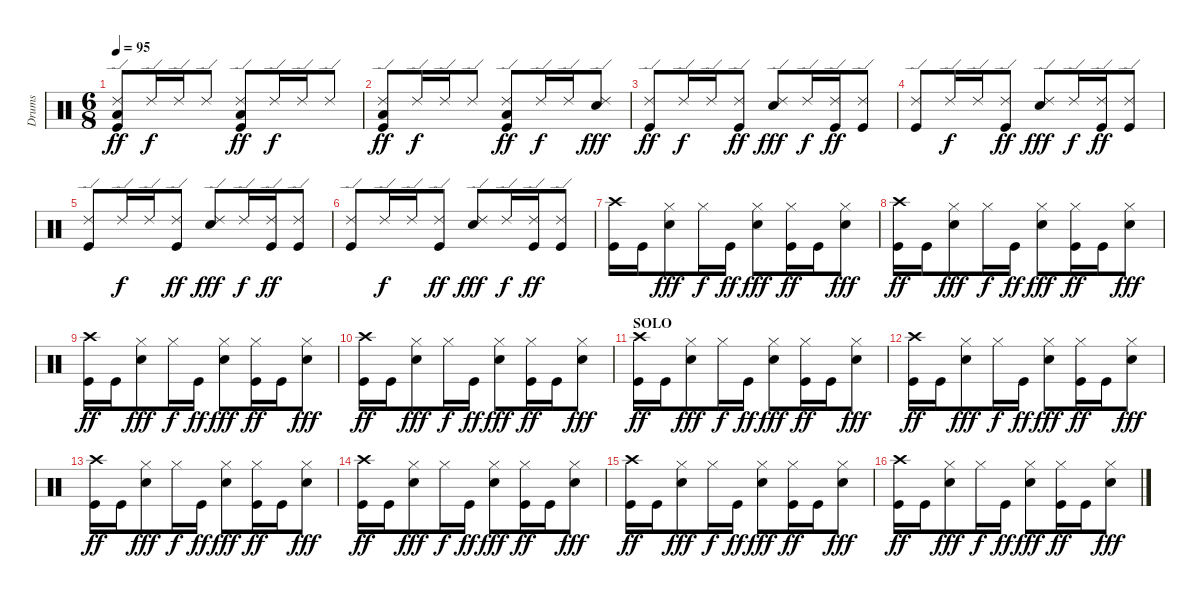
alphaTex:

\track ("Drums" "Drums") {instrument percussion}
\staff {score}
\articulation defaults
\ts (6 8)
\tempo 95
\clef neutral
\ks c
("Ride (edge) 2" "Low Tom (hit)" "Kick (hit)").8{dy ff} "Ride (edge) 2".16{dy f} "Ride (edge) 2".16 "Ride (edge) 2".8 ("Ride (edge) 2" "Low Tom (hit)" "Kick (hit)").8{dy ff} "Ride (edge) 2".16{dy f} "Ride (edge) 2".16 "Ride (edge) 2".8 |
("Ride (edge) 2" "Low Tom (hit)" "Kick (hit)").8{dy ff} "Ride (edge) 2".16{dy f} "Ride (edge) 2".16 "Ride (edge) 2".8 ("Ride (edge) 2" "Low Tom (hit)" "Kick (hit)").8{dy ff} "Ride (edge) 2".16{dy f} "Ride (edge) 2".16 ("Ride (edge) 2" "Electric Snare (hit)").8{dy fff} |
("Ride (edge) 2" "Kick (hit)").8{dy ff} "Ride (edge) 2".16{dy f} "Ride (edge) 2".16 ("Ride (edge) 2" "Kick (hit)").8{dy ff} ("Ride (edge) 2" "Electric Snare (hit)").8{dy fff} "Ride (edge) 2".16{dy f} ("Ride (edge) 2" "Kick (hit)").16{dy ff} ("Ride (edge) 2" "Kick (hit)").8 |
("Ride (edge) 2" "Kick (hit)").8 "Ride (edge) 2".16{dy f} "Ride (edge) 2".16 ("Ride (edge) 2" "Kick (hit)").8{dy ff} ("Ride (edge) 2" "Electric Snare (hit)").8{dy fff} "Ride (edge) 2".16{dy f} ("Ride (edge) 2" "Kick (hit)").16{dy ff} ("Ride (edge) 2" "Kick (hit)").8 |
("Ride (edge) 2" "Kick (hit)").8 "Ride (edge) 2".16{dy f} "Ride (edge) 2".16 ("Ride (edge) 2" "Kick (hit)").8{dy ff} ("Ride (edge) 2" "Electric Snare (hit)").8{dy fff} "Ride (edge) 2".16{dy f} ("Ride (edge) 2" "Kick (hit)").16{dy ff} ("Ride (edge) 2" "Kick (hit)").8 |
("Ride (edge) 2" "Kick (hit)").8 "Ride (edge) 2".16{dy f} "Ride (edge) 2".16 ("Ride (edge) 2" "Kick (hit)").8{dy ff} ("Ride (edge) 2" "Electric Snare (hit)").8{dy fff} "Ride (edge) 2".16{dy f} ("Ride (edge) 2" "Kick (hit)").16{dy ff} ("Ride (edge) 2" "Kick (hit)").8 |
("Crash high (hit)" "Kick (hit)").16 "Kick (hit)".16 ("Hi-Hat (closed)" "Electric Snare (hit)").8{dy fff} "Hi-Hat (closed)".16{dy f} "Kick (hit)".16{dy ff} ("Hi-Hat (closed)" "Electric Snare (hit)").8{dy fff} ("Hi-Hat (closed)" "Kick (hit)").16{dy ff} "Kick (hit)".16 ("Hi-Hat (closed)" "Electric Snare (hit)").8{dy fff} |
("Crash high (hit)" "Kick (hit)").16{dy ff} "Kick (hit)".16 ("Hi-Hat (closed)" "Electric Snare (hit)").8{dy fff} "Hi-Hat (closed)".16{dy f} "Kick (hit)".16{dy ff} ("Hi-Hat (closed)" "Electric Snare (hit)").8{dy fff} ("Hi-Hat (closed)" "Kick (hit)").16{dy ff} "Kick (hit)".16 ("Hi-Hat (closed)" "Electric Snare (hit)").8{dy fff} |
("Crash high (hit)" "Kick (hit)").16{dy ff} "Kick (hit)".16 ("Hi-Hat (closed)" "Electric Snare (hit)").8{dy fff} "Hi-Hat (closed)".16{dy f} "Kick (hit)".16{dy ff} ("Hi-Hat (closed)" "Electric Snare (hit)").8{dy fff} ("Hi-Hat (closed)" "Kick (hit)").16{dy ff} "Kick (hit)".16 ("Hi-Hat (closed)" "Electric Snare (hit)").8{dy fff} |
("Crash high (hit)" "Kick (hit)").16{dy ff} "Kick (hit)".16 ("Hi-Hat (closed)" "Electric Snare (hit)").8{dy fff} "Hi-Hat (closed)".16{dy f} "Kick (hit)".16{dy ff} ("Hi-Hat (closed)" "Electric Snare (hit)").8{dy fff} ("Hi-Hat (closed)" "Kick (hit)").16{dy ff} "Kick (hit)".16 ("Hi-Hat (closed)" "Electric Snare (hit)").8{dy fff} |
\section ("" "SOLO")
("Crash high (hit)" "Kick (hit)").16{dy ff} "Kick (hit)".16 ("Hi-Hat (closed)" "Electric Snare (hit)").8{dy fff} "Hi-Hat (closed)".16{dy f} "Kick (hit)".16{dy ff} ("Hi-Hat (closed)" "Electric Snare (hit)").8{dy fff} ("Hi-Hat (closed)" "Kick (hit)").16{dy ff} "Kick (hit)".16 ("Hi-Hat (closed)" "Electric Snare (hit)").8{dy fff} |
("Crash high (hit)" "Kick (hit)").16{dy ff} "Kick (hit)".16 ("Hi-Hat (closed)" "Electric Snare (hit)").8{dy fff} "Hi-Hat (closed)".16{dy f} "Kick (hit)".16{dy ff} ("Hi-Hat (closed)" "Electric Snare (hit)").8{dy fff} ("Hi-Hat (closed)" "Kick (hit)").16{dy ff} "Kick (hit)".16 ("Hi-Hat (closed)" "Electric Snare (hit)").8{dy fff} |
("Crash high (hit)" "Kick (hit)").16{dy ff} "Kick (hit)".16 ("Hi-Hat (closed)" "Electric Snare (hit)").8{dy fff} "Hi-Hat (closed)".16{dy f} "Kick (hit)".16{dy ff} ("Hi-Hat (closed)" "Electric Snare (hit)").8{dy fff} ("Hi-Hat (closed)" "Kick (hit)").16{dy ff} "Kick (hit)".16 ("Hi-Hat (closed)" "Electric Snare (hit)").8{dy fff} |
("Crash high (hit)" "Kick (hit)").16{dy ff} "Kick (hit)".16 ("Hi-Hat (closed)" "Electric Snare (hit)").8{dy fff} "Hi-Hat (closed)".16{dy f} "Kick (hit)".16{dy ff} ("Hi-Hat (closed)" "Electric Snare (hit)").8{dy fff} ("Hi-Hat (closed)" "Kick (hit)").16{dy ff} "Kick (hit)".16 ("Hi-Hat (closed)" "Electric Snare (hit)").8{dy fff} |
("Crash high (hit)" "Kick (hit)").16{dy ff} "Kick (hit)".16 ("Hi-Hat (closed)" "Electric Snare (hit)").8{dy fff} "Hi-Hat (closed)".16{dy f} "Kick (hit)".16{dy ff} ("Hi-Hat (closed)" "Electric Snare (hit)").8{dy fff} ("Hi-Hat (closed)" "Kick (hit)").16{dy ff} "Kick (hit)".16 ("Hi-Hat (closed)" "Electric Snare (hit)").8{dy fff} |
("Crash high (hit)" "Kick (hit)").16{dy ff} "Kick (hit)".16 ("Hi-Hat (closed)" "Electric Snare (hit)").8{dy fff} "Hi-Hat (closed)".16{dy f} "Kick (hit)".16{dy ff} ("Hi-Hat (closed)" "Electric Snare (hit)").8{dy fff} ("Hi-Hat (closed)" "Kick (hit)").16{dy ff} "Kick (hit)".16 ("Hi-Hat (closed)" "Electric Snare (hit)").8{dy fff}
